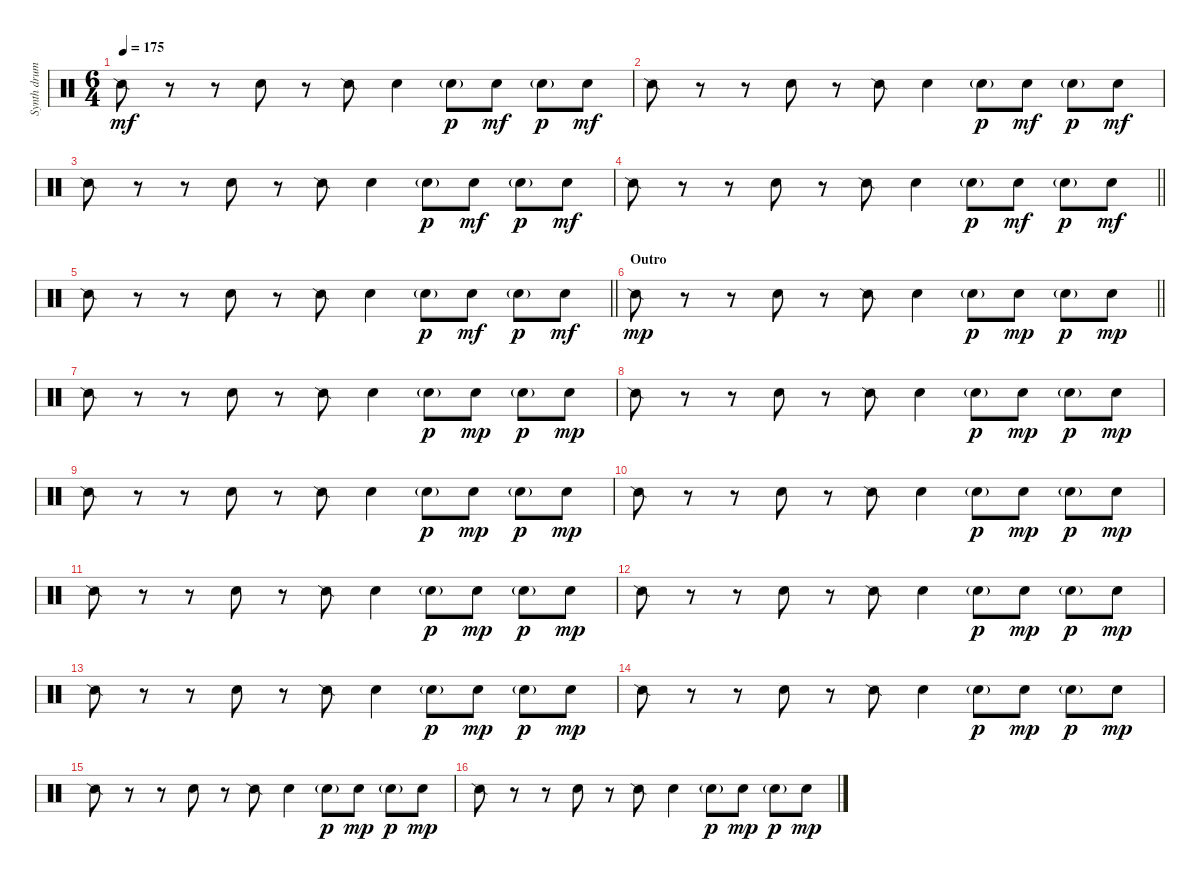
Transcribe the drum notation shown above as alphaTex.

\track ("Synth drums" "Synth drum") {instrument percussion}
\staff {score}
\articulation defaults
\ts (6 4)
\tempo 175
\clef neutral
\ks c "Snare (side stick) 2".8{dy mf}
r.8 r.8 "Hand Clap (hit)".8 r.8 "Snare (side stick) 2".8 "Hand Clap (hit)".4 "Hand Clap (hit)"{g}.8{dy p} "Hand Clap (hit)".8{dy mf} "Hand Clap (hit)"{g}.8{dy p} "Hand Clap (hit)".8{dy mf} |
"Snare (side stick) 2".8 r.8 r.8 "Hand Clap (hit)".8 r.8 "Snare (side stick) 2".8 "Hand Clap (hit)".4 "Hand Clap (hit)"{g}.8{dy p} "Hand Clap (hit)".8{dy mf} "Hand Clap (hit)"{g}.8{dy p} "Hand Clap (hit)".8{dy mf} |
"Snare (side stick) 2".8 r.8 r.8 "Hand Clap (hit)".8 r.8 "Snare (side stick) 2".8 "Hand Clap (hit)".4 "Hand Clap (hit)"{g}.8{dy p} "Hand Clap (hit)".8{dy mf} "Hand Clap (hit)"{g}.8{dy p} "Hand Clap (hit)".8{dy mf} |
\barLineRight lightlight "Snare (side stick) 2".8
r.8 r.8 "Hand Clap (hit)".8 r.8 "Snare (side stick) 2".8 "Hand Clap (hit)".4 "Hand Clap (hit)"{g}.8{dy p} "Hand Clap (hit)".8{dy mf} "Hand Clap (hit)"{g}.8{dy p} "Hand Clap (hit)".8{dy mf} |
\barLineRight lightlight "Snare (side stick) 2".8
r.8 r.8 "Hand Clap (hit)".8 r.8 "Snare (side stick) 2".8 "Hand Clap (hit)".4 "Hand Clap (hit)"{g}.8{dy p} "Hand Clap (hit)".8{dy mf} "Hand Clap (hit)"{g}.8{dy p} "Hand Clap (hit)".8{dy mf} |
\section ("" "Outro")
\barLineRight lightlight "Snare (side stick) 2".8{dy mp}
r.8 r.8 "Hand Clap (hit)".8 r.8 "Snare (side stick) 2".8 "Hand Clap (hit)".4 "Hand Clap (hit)"{g}.8{dy p} "Hand Clap (hit)".8{dy mp} "Hand Clap (hit)"{g}.8{dy p} "Hand Clap (hit)".8{dy mp} |
"Snare (side stick) 2".8 r.8 r.8 "Hand Clap (hit)".8 r.8 "Snare (side stick) 2".8 "Hand Clap (hit)".4 "Hand Clap (hit)"{g}.8{dy p} "Hand Clap (hit)".8{dy mp} "Hand Clap (hit)"{g}.8{dy p} "Hand Clap (hit)".8{dy mp} |
"Snare (side stick) 2".8 r.8 r.8 "Hand Clap (hit)".8 r.8 "Snare (side stick) 2".8 "Hand Clap (hit)".4 "Hand Clap (hit)"{g}.8{dy p} "Hand Clap (hit)".8{dy mp} "Hand Clap (hit)"{g}.8{dy p} "Hand Clap (hit)".8{dy mp} |
"Snare (side stick) 2".8 r.8 r.8 "Hand Clap (hit)".8 r.8 "Snare (side stick) 2".8 "Hand Clap (hit)".4 "Hand Clap (hit)"{g}.8{dy p} "Hand Clap (hit)".8{dy mp} "Hand Clap (hit)"{g}.8{dy p} "Hand Clap (hit)".8{dy mp} |
"Snare (side stick) 2".8 r.8 r.8 "Hand Clap (hit)".8 r.8 "Snare (side stick) 2".8 "Hand Clap (hit)".4 "Hand Clap (hit)"{g}.8{dy p} "Hand Clap (hit)".8{dy mp} "Hand Clap (hit)"{g}.8{dy p} "Hand Clap (hit)".8{dy mp} |
"Snare (side stick) 2".8 r.8 r.8 "Hand Clap (hit)".8 r.8 "Snare (side stick) 2".8 "Hand Clap (hit)".4 "Hand Clap (hit)"{g}.8{dy p} "Hand Clap (hit)".8{dy mp} "Hand Clap (hit)"{g}.8{dy p} "Hand Clap (hit)".8{dy mp} |
"Snare (side stick) 2".8 r.8 r.8 "Hand Clap (hit)".8 r.8 "Snare (side stick) 2".8 "Hand Clap (hit)".4 "Hand Clap (hit)"{g}.8{dy p} "Hand Clap (hit)".8{dy mp} "Hand Clap (hit)"{g}.8{dy p} "Hand Clap (hit)".8{dy mp} |
"Snare (side stick) 2".8 r.8 r.8 "Hand Clap (hit)".8 r.8 "Snare (side stick) 2".8 "Hand Clap (hit)".4 "Hand Clap (hit)"{g}.8{dy p} "Hand Clap (hit)".8{dy mp} "Hand Clap (hit)"{g}.8{dy p} "Hand Clap (hit)".8{dy mp} |
"Snare (side stick) 2".8 r.8 r.8 "Hand Clap (hit)".8 r.8 "Snare (side stick) 2".8 "Hand Clap (hit)".4 "Hand Clap (hit)"{g}.8{dy p} "Hand Clap (hit)".8{dy mp} "Hand Clap (hit)"{g}.8{dy p} "Hand Clap (hit)".8{dy mp} |
"Snare (side stick) 2".8 r.8 r.8 "Hand Clap (hit)".8 r.8 "Snare (side stick) 2".8 "Hand Clap (hit)".4 "Hand Clap (hit)"{g}.8{dy p} "Hand Clap (hit)".8{dy mp} "Hand Clap (hit)"{g}.8{dy p} "Hand Clap (hit)".8{dy mp} |
"Snare (side stick) 2".8 r.8 r.8 "Hand Clap (hit)".8 r.8 "Snare (side stick) 2".8 "Hand Clap (hit)".4 "Hand Clap (hit)"{g}.8{dy p} "Hand Clap (hit)".8{dy mp} "Hand Clap (hit)"{g}.8{dy p} "Hand Clap (hit)".8{dy mp}
